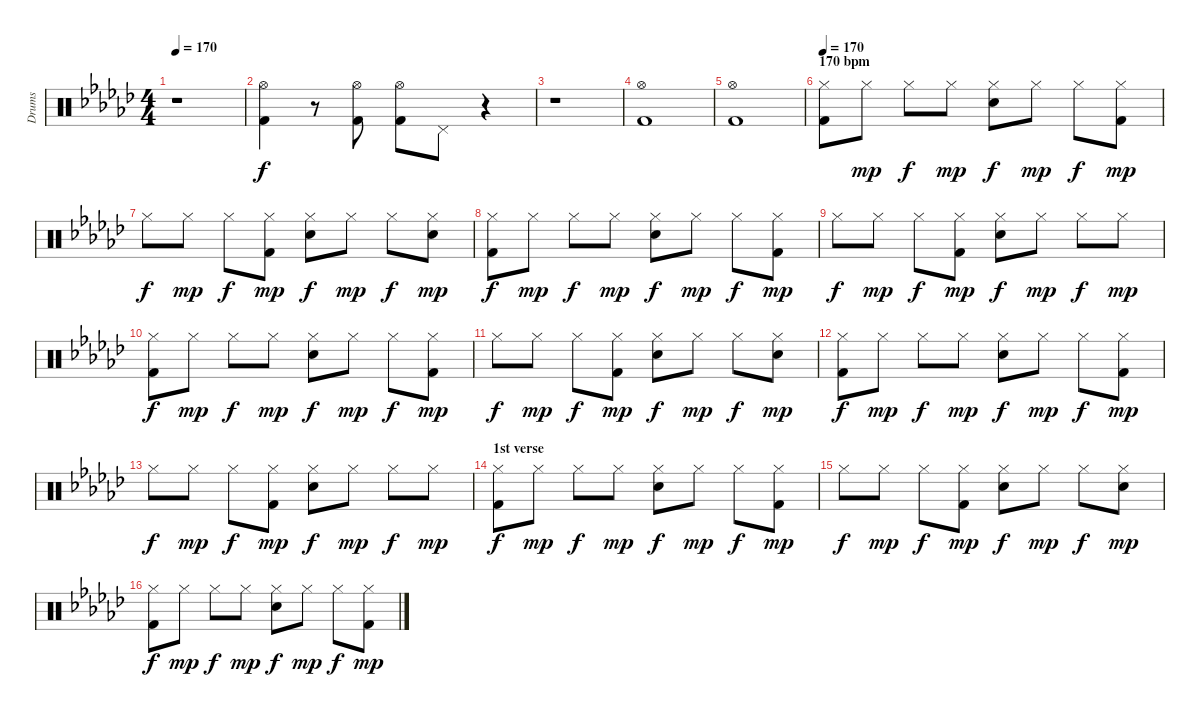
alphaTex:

\track ("Drums" "Drums") {instrument percussion}
\staff {score}
\articulation defaults
\ts (4 4)
\tempo 170
\clef neutral
\ks ebminor
r.1{dy f} |
("Hi-Hat (open)" "Kick (hit) 2").4 r.8 ("Hi-Hat (open)" "Kick (hit) 2").8 ("Hi-Hat (open)" "Kick (hit) 2").8 "Pedal Hi-Hat (hit)".8 r.4 |
r.1 |
("Hi-Hat (open)" "Kick (hit) 2").1 |
("Hi-Hat (open)" "Kick (hit) 2").1 |
\section ("" "170 bpm")
\tempo 170
("Hi-Hat (closed)" "Kick (hit) 2").8 "Hi-Hat (closed)".8{dy mp} "Hi-Hat (closed)".8{dy f} "Hi-Hat (closed)".8{dy mp} ("Hi-Hat (closed)" "Snare (hit) 2").8{dy f} "Hi-Hat (closed)".8{dy mp} "Hi-Hat (closed)".8{dy f} ("Hi-Hat (closed)" "Kick (hit) 2").8{dy mp} |
"Hi-Hat (closed)".8{dy f} "Hi-Hat (closed)".8{dy mp} "Hi-Hat (closed)".8{dy f} ("Hi-Hat (closed)" "Kick (hit) 2").8{dy mp} ("Hi-Hat (closed)" "Snare (hit) 2").8{dy f} "Hi-Hat (closed)".8{dy mp} "Hi-Hat (closed)".8{dy f} ("Hi-Hat (closed)" "Snare (hit) 2").8{dy mp} |
("Hi-Hat (closed)" "Kick (hit) 2").8{dy f} "Hi-Hat (closed)".8{dy mp} "Hi-Hat (closed)".8{dy f} "Hi-Hat (closed)".8{dy mp} ("Hi-Hat (closed)" "Snare (hit) 2").8{dy f} "Hi-Hat (closed)".8{dy mp} "Hi-Hat (closed)".8{dy f} ("Hi-Hat (closed)" "Kick (hit) 2").8{dy mp} |
"Hi-Hat (closed)".8{dy f} "Hi-Hat (closed)".8{dy mp} "Hi-Hat (closed)".8{dy f} ("Hi-Hat (closed)" "Kick (hit) 2").8{dy mp} ("Hi-Hat (closed)" "Snare (hit) 2").8{dy f} "Hi-Hat (closed)".8{dy mp} "Hi-Hat (closed)".8{dy f} "Hi-Hat (closed)".8{dy mp} |
("Hi-Hat (closed)" "Kick (hit) 2").8{dy f} "Hi-Hat (closed)".8{dy mp} "Hi-Hat (closed)".8{dy f} "Hi-Hat (closed)".8{dy mp} ("Hi-Hat (closed)" "Snare (hit) 2").8{dy f} "Hi-Hat (closed)".8{dy mp} "Hi-Hat (closed)".8{dy f} ("Hi-Hat (closed)" "Kick (hit) 2").8{dy mp} |
"Hi-Hat (closed)".8{dy f} "Hi-Hat (closed)".8{dy mp} "Hi-Hat (closed)".8{dy f} ("Hi-Hat (closed)" "Kick (hit) 2").8{dy mp} ("Hi-Hat (closed)" "Snare (hit) 2").8{dy f} "Hi-Hat (closed)".8{dy mp} "Hi-Hat (closed)".8{dy f} ("Hi-Hat (closed)" "Snare (hit) 2").8{dy mp} |
("Hi-Hat (closed)" "Kick (hit) 2").8{dy f} "Hi-Hat (closed)".8{dy mp} "Hi-Hat (closed)".8{dy f} "Hi-Hat (closed)".8{dy mp} ("Hi-Hat (closed)" "Snare (hit) 2").8{dy f} "Hi-Hat (closed)".8{dy mp} "Hi-Hat (closed)".8{dy f} ("Hi-Hat (closed)" "Kick (hit) 2").8{dy mp} |
"Hi-Hat (closed)".8{dy f} "Hi-Hat (closed)".8{dy mp} "Hi-Hat (closed)".8{dy f} ("Hi-Hat (closed)" "Kick (hit) 2").8{dy mp} ("Hi-Hat (closed)" "Snare (hit) 2").8{dy f} "Hi-Hat (closed)".8{dy mp} "Hi-Hat (closed)".8{dy f} "Hi-Hat (closed)".8{dy mp} |
\section ("" "1st verse")
("Hi-Hat (closed)" "Kick (hit) 2").8{dy f} "Hi-Hat (closed)".8{dy mp} "Hi-Hat (closed)".8{dy f} "Hi-Hat (closed)".8{dy mp} ("Hi-Hat (closed)" "Snare (hit) 2").8{dy f} "Hi-Hat (closed)".8{dy mp} "Hi-Hat (closed)".8{dy f} ("Hi-Hat (closed)" "Kick (hit) 2").8{dy mp} |
"Hi-Hat (closed)".8{dy f} "Hi-Hat (closed)".8{dy mp} "Hi-Hat (closed)".8{dy f} ("Hi-Hat (closed)" "Kick (hit) 2").8{dy mp} ("Hi-Hat (closed)" "Snare (hit) 2").8{dy f} "Hi-Hat (closed)".8{dy mp} "Hi-Hat (closed)".8{dy f} ("Hi-Hat (closed)" "Snare (hit) 2").8{dy mp} |
("Hi-Hat (closed)" "Kick (hit) 2").8{dy f} "Hi-Hat (closed)".8{dy mp} "Hi-Hat (closed)".8{dy f} "Hi-Hat (closed)".8{dy mp} ("Hi-Hat (closed)" "Snare (hit) 2").8{dy f} "Hi-Hat (closed)".8{dy mp} "Hi-Hat (closed)".8{dy f} ("Hi-Hat (closed)" "Kick (hit) 2").8{dy mp}
